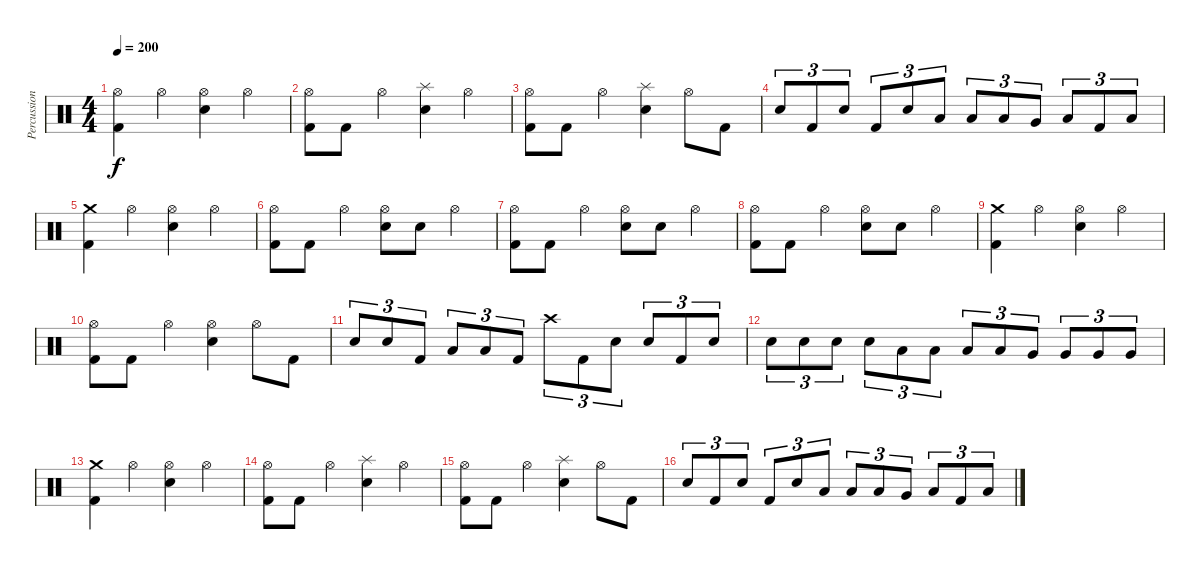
\track ("Percussion" "Percussion") {instrument percussion}
\staff {score}
\articulation defaults
\ts (4 4)
\tempo 200
\clef neutral
\ks c
("Hi-Hat (open)" "Kick (hit) 2").4{dy f} "Hi-Hat (open)".4 ("Hi-Hat (open)" "Electric Snare (hit)").4 "Hi-Hat (open)".4 |
("Hi-Hat (open)" "Kick (hit) 2").8 "Kick (hit) 2".8 "Hi-Hat (open)".4 ("Splash (hit)" "Electric Snare (hit)").4 "Hi-Hat (open)".4 |
("Hi-Hat (open)" "Kick (hit) 2").8 "Kick (hit) 2".8 "Hi-Hat (open)".4 ("Splash (hit)" "Electric Snare (hit)").4 "Hi-Hat (open)".8 "Kick (hit) 2".8 |
"Electric Snare (hit)".8{tu (3 2)} "Kick (hit) 2".8{tu (3 2)} "Electric Snare (hit)".8{tu (3 2)} "Kick (hit) 2".8{tu (3 2)} "Electric Snare (hit)".8{tu (3 2)} "Low Tom (hit)".8{tu (3 2)} "Low Tom (hit)".8{tu (3 2)} "Low Tom (hit)".8{tu (3 2)} "Very Low Tom (hit)".8{tu (3 2)} "Low Tom (hit)".8{tu (3 2)} "Kick (hit) 2".8{tu (3 2)} "Low Tom (hit)".8{tu (3 2)} |
("Crash medium (hit)" "Kick (hit) 2").4 "Hi-Hat (open)".4 ("Hi-Hat (open)" "Electric Snare (hit)").4 "Hi-Hat (open)".4 |
("Hi-Hat (open)" "Kick (hit) 2").8 "Kick (hit) 2".8 "Hi-Hat (open)".4 ("Hi-Hat (open)" "Electric Snare (hit)").8 "Electric Snare (hit)".8 "Hi-Hat (open)".4 |
("Hi-Hat (open)" "Kick (hit) 2").8 "Kick (hit) 2".8 "Hi-Hat (open)".4 ("Hi-Hat (open)" "Electric Snare (hit)").8 "Electric Snare (hit)".8 "Hi-Hat (open)".4 |
("Hi-Hat (open)" "Kick (hit) 2").8 "Kick (hit) 2".8 "Hi-Hat (open)".4 ("Hi-Hat (open)" "Electric Snare (hit)").8 "Electric Snare (hit)".8 "Hi-Hat (open)".4 |
("Crash medium (hit)" "Kick (hit) 2").4 "Hi-Hat (open)".4 ("Hi-Hat (open)" "Electric Snare (hit)").4 "Hi-Hat (open)".4 |
("Hi-Hat (open)" "Kick (hit) 2").8 "Kick (hit) 2".8 "Hi-Hat (open)".4 ("Hi-Hat (open)" "Electric Snare (hit)").4 "Hi-Hat (open)".8 "Kick (hit) 2".8 |
"Electric Snare (hit)".8{tu (3 2)} "Electric Snare (hit)".8{tu (3 2)} "Kick (hit) 2".8{tu (3 2)} "Low Tom (hit)".8{tu (3 2)} "Low Tom (hit)".8{tu (3 2)} "Kick (hit) 2".8{tu (3 2)} "Crash high (hit)".8{tu (3 2)} "Kick (hit) 2".8{tu (3 2)} "Electric Snare (hit)".8{tu (3 2)} "Electric Snare (hit)".8{tu (3 2)} "Kick (hit) 2".8{tu (3 2)} "Electric Snare (hit)".8{tu (3 2)} |
"Electric Snare (hit)".8{tu (3 2)} "Electric Snare (hit)".8{tu (3 2)} "Electric Snare (hit)".8{tu (3 2)} "Electric Snare (hit)".8{tu (3 2)} "Low Tom (hit)".8{tu (3 2)} "Low Tom (hit)".8{tu (3 2)} "Low Tom (hit)".8{tu (3 2)} "Low Tom (hit)".8{tu (3 2)} "Very Low Tom (hit)".8{tu (3 2)} "Very Low Tom (hit)".8{tu (3 2)} "Very Low Tom (hit)".8{tu (3 2)} "Very Low Tom (hit)".8{tu (3 2)} |
("Crash medium (hit)" "Kick (hit) 2").4 "Hi-Hat (open)".4 ("Hi-Hat (open)" "Electric Snare (hit)").4 "Hi-Hat (open)".4 |
("Hi-Hat (open)" "Kick (hit) 2").8 "Kick (hit) 2".8 "Hi-Hat (open)".4 ("Splash (hit)" "Electric Snare (hit)").4 "Hi-Hat (open)".4 |
("Hi-Hat (open)" "Kick (hit) 2").8 "Kick (hit) 2".8 "Hi-Hat (open)".4 ("Splash (hit)" "Electric Snare (hit)").4 "Hi-Hat (open)".8 "Kick (hit) 2".8 |
"Electric Snare (hit)".8{tu (3 2)} "Kick (hit) 2".8{tu (3 2)} "Electric Snare (hit)".8{tu (3 2)} "Kick (hit) 2".8{tu (3 2)} "Electric Snare (hit)".8{tu (3 2)} "Low Tom (hit)".8{tu (3 2)} "Low Tom (hit)".8{tu (3 2)} "Low Tom (hit)".8{tu (3 2)} "Very Low Tom (hit)".8{tu (3 2)} "Low Tom (hit)".8{tu (3 2)} "Kick (hit) 2".8{tu (3 2)} "Low Tom (hit)".8{tu (3 2)}
